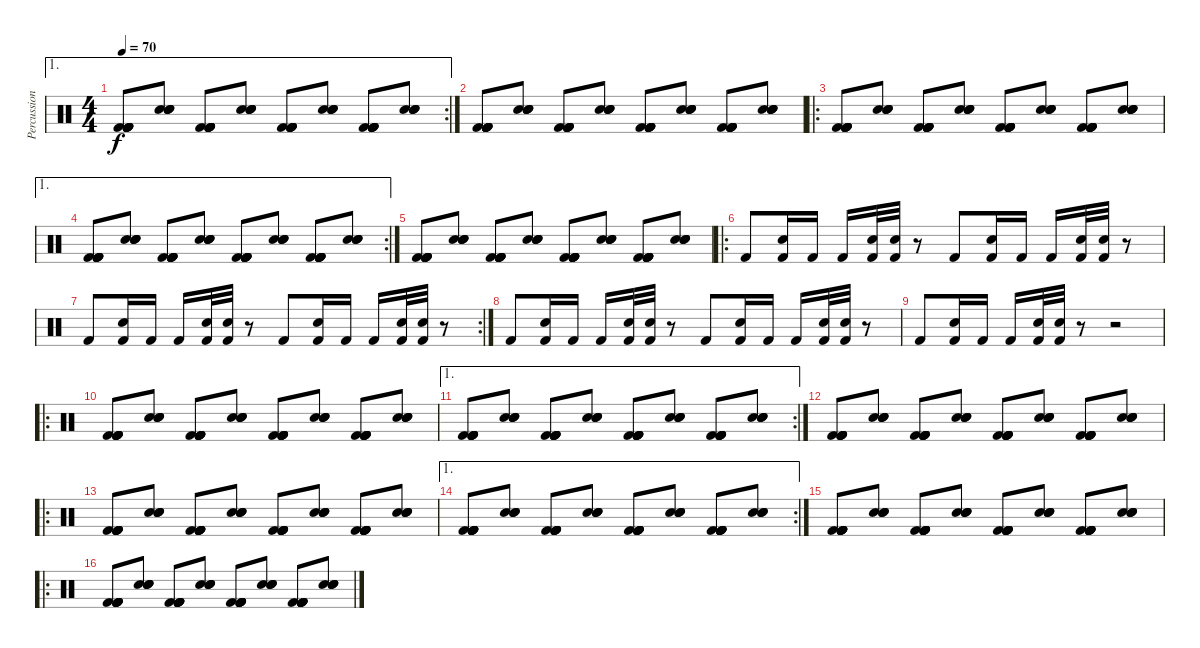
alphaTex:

\track ("Percussions" "Percussion") {instrument percussion}
\staff {score}
\articulation defaults
\ae 1
\rc 2
\ts (4 4)
\tempo 70
\clef neutral
\ks c
("Kick (hit) 2" "Kick (hit) 2" "Kick (hit) 2" "Kick (hit) 2" "Kick (hit) 2" "Kick (hit) 2").8{dy f} ("Electric Snare (hit)" "Electric Snare (hit)" "Electric Snare (hit)" "Electric Snare (hit)").8 ("Kick (hit) 2" "Kick (hit) 2" "Kick (hit) 2" "Kick (hit) 2" "Kick (hit) 2" "Kick (hit) 2").8 ("Electric Snare (hit)" "Electric Snare (hit)" "Electric Snare (hit)" "Electric Snare (hit)").8 ("Kick (hit) 2" "Kick (hit) 2" "Kick (hit) 2" "Kick (hit) 2" "Kick (hit) 2" "Kick (hit) 2").8 ("Electric Snare (hit)" "Electric Snare (hit)" "Electric Snare (hit)" "Electric Snare (hit)").8 ("Kick (hit) 2" "Kick (hit) 2" "Kick (hit) 2" "Kick (hit) 2" "Kick (hit) 2" "Kick (hit) 2").8 ("Electric Snare (hit)" "Electric Snare (hit)" "Electric Snare (hit)" "Electric Snare (hit)").8 |
("Kick (hit) 2" "Kick (hit) 2" "Kick (hit) 2" "Kick (hit) 2" "Kick (hit) 2" "Kick (hit) 2").8 ("Electric Snare (hit)" "Electric Snare (hit)" "Electric Snare (hit)" "Electric Snare (hit)").8 ("Kick (hit) 2" "Kick (hit) 2" "Kick (hit) 2" "Kick (hit) 2" "Kick (hit) 2" "Kick (hit) 2").8 ("Electric Snare (hit)" "Electric Snare (hit)" "Electric Snare (hit)" "Electric Snare (hit)").8 ("Kick (hit) 2" "Kick (hit) 2" "Kick (hit) 2" "Kick (hit) 2" "Kick (hit) 2" "Kick (hit) 2").8 ("Electric Snare (hit)" "Electric Snare (hit)" "Electric Snare (hit)" "Electric Snare (hit)").8 ("Kick (hit) 2" "Kick (hit) 2" "Kick (hit) 2" "Kick (hit) 2" "Kick (hit) 2" "Kick (hit) 2").8 ("Electric Snare (hit)" "Electric Snare (hit)" "Electric Snare (hit)" "Electric Snare (hit)").8 |
\ro
("Kick (hit) 2" "Kick (hit) 2" "Kick (hit) 2" "Kick (hit) 2" "Kick (hit) 2" "Kick (hit) 2").8 ("Electric Snare (hit)" "Electric Snare (hit)" "Electric Snare (hit)" "Electric Snare (hit)").8 ("Kick (hit) 2" "Kick (hit) 2" "Kick (hit) 2" "Kick (hit) 2" "Kick (hit) 2" "Kick (hit) 2").8 ("Electric Snare (hit)" "Electric Snare (hit)" "Electric Snare (hit)" "Electric Snare (hit)").8 ("Kick (hit) 2" "Kick (hit) 2" "Kick (hit) 2" "Kick (hit) 2" "Kick (hit) 2" "Kick (hit) 2").8 ("Electric Snare (hit)" "Electric Snare (hit)" "Electric Snare (hit)" "Electric Snare (hit)").8 ("Kick (hit) 2" "Kick (hit) 2" "Kick (hit) 2" "Kick (hit) 2" "Kick (hit) 2" "Kick (hit) 2").8 ("Electric Snare (hit)" "Electric Snare (hit)" "Electric Snare (hit)" "Electric Snare (hit)").8 |
\ae 1
\rc 2
("Kick (hit) 2" "Kick (hit) 2" "Kick (hit) 2" "Kick (hit) 2" "Kick (hit) 2" "Kick (hit) 2").8 ("Electric Snare (hit)" "Electric Snare (hit)" "Electric Snare (hit)" "Electric Snare (hit)").8 ("Kick (hit) 2" "Kick (hit) 2" "Kick (hit) 2" "Kick (hit) 2" "Kick (hit) 2" "Kick (hit) 2").8 ("Electric Snare (hit)" "Electric Snare (hit)" "Electric Snare (hit)" "Electric Snare (hit)").8 ("Kick (hit) 2" "Kick (hit) 2" "Kick (hit) 2" "Kick (hit) 2" "Kick (hit) 2" "Kick (hit) 2").8 ("Electric Snare (hit)" "Electric Snare (hit)" "Electric Snare (hit)" "Electric Snare (hit)").8 ("Kick (hit) 2" "Kick (hit) 2" "Kick (hit) 2" "Kick (hit) 2" "Kick (hit) 2" "Kick (hit) 2").8 ("Electric Snare (hit)" "Electric Snare (hit)" "Electric Snare (hit)" "Electric Snare (hit)").8 |
("Kick (hit) 2" "Kick (hit) 2" "Kick (hit) 2" "Kick (hit) 2" "Kick (hit) 2" "Kick (hit) 2").8 ("Electric Snare (hit)" "Electric Snare (hit)" "Electric Snare (hit)" "Electric Snare (hit)").8 ("Kick (hit) 2" "Kick (hit) 2" "Kick (hit) 2" "Kick (hit) 2" "Kick (hit) 2" "Kick (hit) 2").8 ("Electric Snare (hit)" "Electric Snare (hit)" "Electric Snare (hit)" "Electric Snare (hit)").8 ("Kick (hit) 2" "Kick (hit) 2" "Kick (hit) 2" "Kick (hit) 2" "Kick (hit) 2" "Kick (hit) 2").8 ("Electric Snare (hit)" "Electric Snare (hit)" "Electric Snare (hit)" "Electric Snare (hit)").8 ("Kick (hit) 2" "Kick (hit) 2" "Kick (hit) 2" "Kick (hit) 2" "Kick (hit) 2" "Kick (hit) 2").8 ("Electric Snare (hit)" "Electric Snare (hit)" "Electric Snare (hit)" "Electric Snare (hit)").8 |
\ro "Kick (hit) 2".8
("Kick (hit) 2" "Electric Snare (hit)").16 "Kick (hit) 2".16 "Kick (hit) 2".16 ("Kick (hit) 2" "Electric Snare (hit)").32 ("Kick (hit) 2" "Electric Snare (hit)").32 r.8 "Kick (hit) 2".8 ("Kick (hit) 2" "Electric Snare (hit)").16 "Kick (hit) 2".16 "Kick (hit) 2".16 ("Kick (hit) 2" "Electric Snare (hit)").32 ("Kick (hit) 2" "Electric Snare (hit)").32 r.8 |
\rc 2 "Kick (hit) 2".8
("Kick (hit) 2" "Electric Snare (hit)").16 "Kick (hit) 2".16 "Kick (hit) 2".16 ("Kick (hit) 2" "Electric Snare (hit)").32 ("Kick (hit) 2" "Electric Snare (hit)").32 r.8 "Kick (hit) 2".8 ("Kick (hit) 2" "Electric Snare (hit)").16 "Kick (hit) 2".16 "Kick (hit) 2".16 ("Kick (hit) 2" "Electric Snare (hit)").32 ("Kick (hit) 2" "Electric Snare (hit)").32 r.8 |
"Kick (hit) 2".8 ("Kick (hit) 2" "Electric Snare (hit)").16 "Kick (hit) 2".16 "Kick (hit) 2".16 ("Kick (hit) 2" "Electric Snare (hit)").32 ("Kick (hit) 2" "Electric Snare (hit)").32 r.8 "Kick (hit) 2".8 ("Kick (hit) 2" "Electric Snare (hit)").16 "Kick (hit) 2".16 "Kick (hit) 2".16 ("Kick (hit) 2" "Electric Snare (hit)").32 ("Kick (hit) 2" "Electric Snare (hit)").32 r.8 |
"Kick (hit) 2".8 ("Kick (hit) 2" "Electric Snare (hit)").16 "Kick (hit) 2".16 "Kick (hit) 2".16 ("Kick (hit) 2" "Electric Snare (hit)").32 ("Kick (hit) 2" "Electric Snare (hit)").32 r.8 r.2 |
\ro
("Kick (hit) 2" "Kick (hit) 2" "Kick (hit) 2" "Kick (hit) 2" "Kick (hit) 2" "Kick (hit) 2").8 ("Electric Snare (hit)" "Electric Snare (hit)" "Electric Snare (hit)" "Electric Snare (hit)").8 ("Kick (hit) 2" "Kick (hit) 2" "Kick (hit) 2" "Kick (hit) 2" "Kick (hit) 2" "Kick (hit) 2").8 ("Electric Snare (hit)" "Electric Snare (hit)" "Electric Snare (hit)" "Electric Snare (hit)").8 ("Kick (hit) 2" "Kick (hit) 2" "Kick (hit) 2" "Kick (hit) 2" "Kick (hit) 2" "Kick (hit) 2").8 ("Electric Snare (hit)" "Electric Snare (hit)" "Electric Snare (hit)" "Electric Snare (hit)").8 ("Kick (hit) 2" "Kick (hit) 2" "Kick (hit) 2" "Kick (hit) 2" "Kick (hit) 2" "Kick (hit) 2").8 ("Electric Snare (hit)" "Electric Snare (hit)" "Electric Snare (hit)" "Electric Snare (hit)").8 |
\ae 1
\rc 2
("Kick (hit) 2" "Kick (hit) 2" "Kick (hit) 2" "Kick (hit) 2" "Kick (hit) 2" "Kick (hit) 2").8 ("Electric Snare (hit)" "Electric Snare (hit)" "Electric Snare (hit)" "Electric Snare (hit)").8 ("Kick (hit) 2" "Kick (hit) 2" "Kick (hit) 2" "Kick (hit) 2" "Kick (hit) 2" "Kick (hit) 2").8 ("Electric Snare (hit)" "Electric Snare (hit)" "Electric Snare (hit)" "Electric Snare (hit)").8 ("Kick (hit) 2" "Kick (hit) 2" "Kick (hit) 2" "Kick (hit) 2" "Kick (hit) 2" "Kick (hit) 2").8 ("Electric Snare (hit)" "Electric Snare (hit)" "Electric Snare (hit)" "Electric Snare (hit)").8 ("Kick (hit) 2" "Kick (hit) 2" "Kick (hit) 2" "Kick (hit) 2" "Kick (hit) 2" "Kick (hit) 2").8 ("Electric Snare (hit)" "Electric Snare (hit)" "Electric Snare (hit)" "Electric Snare (hit)").8 |
("Kick (hit) 2" "Kick (hit) 2" "Kick (hit) 2" "Kick (hit) 2" "Kick (hit) 2" "Kick (hit) 2").8 ("Electric Snare (hit)" "Electric Snare (hit)" "Electric Snare (hit)" "Electric Snare (hit)").8 ("Kick (hit) 2" "Kick (hit) 2" "Kick (hit) 2" "Kick (hit) 2" "Kick (hit) 2" "Kick (hit) 2").8 ("Electric Snare (hit)" "Electric Snare (hit)" "Electric Snare (hit)" "Electric Snare (hit)").8 ("Kick (hit) 2" "Kick (hit) 2" "Kick (hit) 2" "Kick (hit) 2" "Kick (hit) 2" "Kick (hit) 2").8 ("Electric Snare (hit)" "Electric Snare (hit)" "Electric Snare (hit)" "Electric Snare (hit)").8 ("Kick (hit) 2" "Kick (hit) 2" "Kick (hit) 2" "Kick (hit) 2" "Kick (hit) 2" "Kick (hit) 2").8 ("Electric Snare (hit)" "Electric Snare (hit)" "Electric Snare (hit)" "Electric Snare (hit)").8 |
\ro
("Kick (hit) 2" "Kick (hit) 2" "Kick (hit) 2" "Kick (hit) 2" "Kick (hit) 2" "Kick (hit) 2").8 ("Electric Snare (hit)" "Electric Snare (hit)" "Electric Snare (hit)" "Electric Snare (hit)").8 ("Kick (hit) 2" "Kick (hit) 2" "Kick (hit) 2" "Kick (hit) 2" "Kick (hit) 2" "Kick (hit) 2").8 ("Electric Snare (hit)" "Electric Snare (hit)" "Electric Snare (hit)" "Electric Snare (hit)").8 ("Kick (hit) 2" "Kick (hit) 2" "Kick (hit) 2" "Kick (hit) 2" "Kick (hit) 2" "Kick (hit) 2").8 ("Electric Snare (hit)" "Electric Snare (hit)" "Electric Snare (hit)" "Electric Snare (hit)").8 ("Kick (hit) 2" "Kick (hit) 2" "Kick (hit) 2" "Kick (hit) 2" "Kick (hit) 2" "Kick (hit) 2").8 ("Electric Snare (hit)" "Electric Snare (hit)" "Electric Snare (hit)" "Electric Snare (hit)").8 |
\ae 1
\rc 2
("Kick (hit) 2" "Kick (hit) 2" "Kick (hit) 2" "Kick (hit) 2" "Kick (hit) 2" "Kick (hit) 2").8 ("Electric Snare (hit)" "Electric Snare (hit)" "Electric Snare (hit)" "Electric Snare (hit)").8 ("Kick (hit) 2" "Kick (hit) 2" "Kick (hit) 2" "Kick (hit) 2" "Kick (hit) 2" "Kick (hit) 2").8 ("Electric Snare (hit)" "Electric Snare (hit)" "Electric Snare (hit)" "Electric Snare (hit)").8 ("Kick (hit) 2" "Kick (hit) 2" "Kick (hit) 2" "Kick (hit) 2" "Kick (hit) 2" "Kick (hit) 2").8 ("Electric Snare (hit)" "Electric Snare (hit)" "Electric Snare (hit)" "Electric Snare (hit)").8 ("Kick (hit) 2" "Kick (hit) 2" "Kick (hit) 2" "Kick (hit) 2" "Kick (hit) 2" "Kick (hit) 2").8 ("Electric Snare (hit)" "Electric Snare (hit)" "Electric Snare (hit)" "Electric Snare (hit)").8 |
("Kick (hit) 2" "Kick (hit) 2" "Kick (hit) 2" "Kick (hit) 2" "Kick (hit) 2" "Kick (hit) 2").8 ("Electric Snare (hit)" "Electric Snare (hit)" "Electric Snare (hit)" "Electric Snare (hit)").8 ("Kick (hit) 2" "Kick (hit) 2" "Kick (hit) 2" "Kick (hit) 2" "Kick (hit) 2" "Kick (hit) 2").8 ("Electric Snare (hit)" "Electric Snare (hit)" "Electric Snare (hit)" "Electric Snare (hit)").8 ("Kick (hit) 2" "Kick (hit) 2" "Kick (hit) 2" "Kick (hit) 2" "Kick (hit) 2" "Kick (hit) 2").8 ("Electric Snare (hit)" "Electric Snare (hit)" "Electric Snare (hit)" "Electric Snare (hit)").8 ("Kick (hit) 2" "Kick (hit) 2" "Kick (hit) 2" "Kick (hit) 2" "Kick (hit) 2" "Kick (hit) 2").8 ("Electric Snare (hit)" "Electric Snare (hit)" "Electric Snare (hit)" "Electric Snare (hit)").8 |
\ro
("Kick (hit) 2" "Kick (hit) 2" "Kick (hit) 2" "Kick (hit) 2" "Kick (hit) 2" "Kick (hit) 2").8 ("Electric Snare (hit)" "Electric Snare (hit)" "Electric Snare (hit)" "Electric Snare (hit)").8 ("Kick (hit) 2" "Kick (hit) 2" "Kick (hit) 2" "Kick (hit) 2" "Kick (hit) 2" "Kick (hit) 2").8 ("Electric Snare (hit)" "Electric Snare (hit)" "Electric Snare (hit)" "Electric Snare (hit)").8 ("Kick (hit) 2" "Kick (hit) 2" "Kick (hit) 2" "Kick (hit) 2" "Kick (hit) 2" "Kick (hit) 2").8 ("Electric Snare (hit)" "Electric Snare (hit)" "Electric Snare (hit)" "Electric Snare (hit)").8 ("Kick (hit) 2" "Kick (hit) 2" "Kick (hit) 2" "Kick (hit) 2" "Kick (hit) 2" "Kick (hit) 2").8 ("Electric Snare (hit)" "Electric Snare (hit)" "Electric Snare (hit)" "Electric Snare (hit)").8
